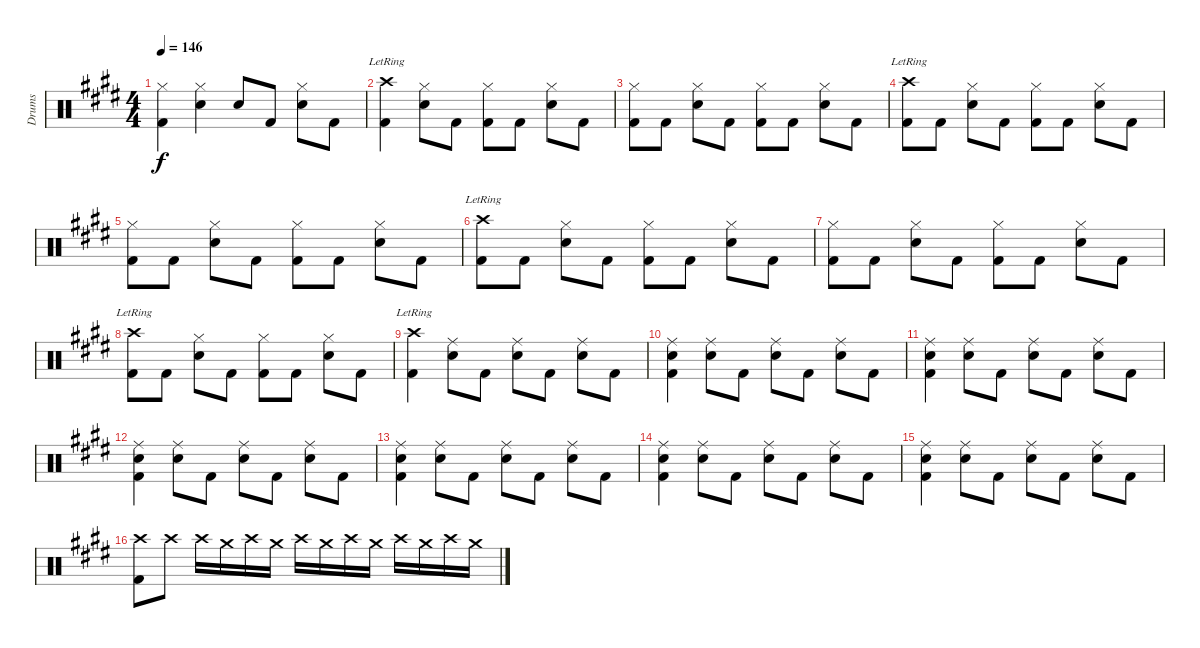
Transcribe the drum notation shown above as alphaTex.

\track ("Drums" "Drums") {instrument percussion}
\staff {score}
\articulation defaults
\ts (4 4)
\tempo 146
\clef neutral
\ks e
("Kick (hit) 2" "Hi-Hat (closed)").4{dy f} ("Snare (hit) 2" "Hi-Hat (closed)").4 "Snare (hit) 2".8 "Kick (hit) 2".8 ("Snare (hit) 2" "Hi-Hat (closed)").8 "Kick (hit) 2".8 |
("Kick (hit) 2" "Crash high (hit)"{lr}).4 ("Snare (hit) 2" "Hi-Hat (closed)").8 "Kick (hit) 2".8 ("Kick (hit) 2" "Hi-Hat (closed)").8 "Kick (hit) 2".8 ("Snare (hit) 2" "Hi-Hat (closed)").8 "Kick (hit) 2".8 |
("Kick (hit) 2" "Hi-Hat (closed)").8 "Kick (hit) 2".8 ("Snare (hit) 2" "Hi-Hat (closed)").8 "Kick (hit) 2".8 ("Kick (hit) 2" "Hi-Hat (closed)").8 "Kick (hit) 2".8 ("Snare (hit) 2" "Hi-Hat (closed)").8 "Kick (hit) 2".8 |
("Kick (hit) 2" "Crash high (hit)"{lr}).8 "Kick (hit) 2".8 ("Snare (hit) 2" "Hi-Hat (closed)").8 "Kick (hit) 2".8 ("Kick (hit) 2" "Hi-Hat (closed)").8 "Kick (hit) 2".8 ("Snare (hit) 2" "Hi-Hat (closed)").8 "Kick (hit) 2".8 |
("Kick (hit) 2" "Hi-Hat (closed)").8 "Kick (hit) 2".8 ("Snare (hit) 2" "Hi-Hat (closed)").8 "Kick (hit) 2".8 ("Kick (hit) 2" "Hi-Hat (closed)").8 "Kick (hit) 2".8 ("Snare (hit) 2" "Hi-Hat (closed)").8 "Kick (hit) 2".8 |
("Kick (hit) 2" "Crash high (hit)"{lr}).8 "Kick (hit) 2".8 ("Snare (hit) 2" "Hi-Hat (closed)").8 "Kick (hit) 2".8 ("Kick (hit) 2" "Hi-Hat (closed)").8 "Kick (hit) 2".8 ("Snare (hit) 2" "Hi-Hat (closed)").8 "Kick (hit) 2".8 |
("Kick (hit) 2" "Hi-Hat (closed)").8 "Kick (hit) 2".8 ("Snare (hit) 2" "Hi-Hat (closed)").8 "Kick (hit) 2".8 ("Kick (hit) 2" "Hi-Hat (closed)").8 "Kick (hit) 2".8 ("Snare (hit) 2" "Hi-Hat (closed)").8 "Kick (hit) 2".8 |
("Kick (hit) 2" "Crash high (hit)"{lr}).8 "Kick (hit) 2".8 ("Snare (hit) 2" "Hi-Hat (closed)").8 "Kick (hit) 2".8 ("Kick (hit) 2" "Hi-Hat (closed)").8 "Kick (hit) 2".8 ("Snare (hit) 2" "Hi-Hat (closed)").8 "Kick (hit) 2".8 |
("Kick (hit) 2" "Crash high (hit)"{lr}).4 ("Snare (hit) 2" "Ride (middle)").8 "Kick (hit) 2".8 ("Snare (hit) 2" "Ride (middle)").8 "Kick (hit) 2".8 ("Snare (hit) 2" "Ride (middle)").8 "Kick (hit) 2".8 |
("Kick (hit) 2" "Snare (hit) 2" "Ride (middle)").4 ("Snare (hit) 2" "Ride (middle)").8 "Kick (hit) 2".8 ("Snare (hit) 2" "Ride (middle)").8 "Kick (hit) 2".8 ("Snare (hit) 2" "Ride (middle)").8 "Kick (hit) 2".8 |
("Kick (hit) 2" "Snare (hit) 2" "Ride (middle)").4 ("Snare (hit) 2" "Ride (middle)").8 "Kick (hit) 2".8 ("Snare (hit) 2" "Ride (middle)").8 "Kick (hit) 2".8 ("Snare (hit) 2" "Ride (middle)").8 "Kick (hit) 2".8 |
("Kick (hit) 2" "Snare (hit) 2" "Ride (middle)").4 ("Snare (hit) 2" "Ride (middle)").8 "Kick (hit) 2".8 ("Snare (hit) 2" "Ride (middle)").8 "Kick (hit) 2".8 ("Snare (hit) 2" "Ride (middle)").8 "Kick (hit) 2".8 |
("Kick (hit) 2" "Snare (hit) 2" "Ride (middle)").4 ("Snare (hit) 2" "Ride (middle)").8 "Kick (hit) 2".8 ("Snare (hit) 2" "Ride (middle)").8 "Kick (hit) 2".8 ("Snare (hit) 2" "Ride (middle)").8 "Kick (hit) 2".8 |
("Kick (hit) 2" "Snare (hit) 2" "Ride (middle)").4 ("Snare (hit) 2" "Ride (middle)").8 "Kick (hit) 2".8 ("Snare (hit) 2" "Ride (middle)").8 "Kick (hit) 2".8 ("Snare (hit) 2" "Ride (middle)").8 "Kick (hit) 2".8 |
("Kick (hit) 2" "Snare (hit) 2" "Ride (middle)").4 ("Snare (hit) 2" "Ride (middle)").8 "Kick (hit) 2".8 ("Snare (hit) 2" "Ride (middle)").8 "Kick (hit) 2".8 ("Snare (hit) 2" "Ride (middle)").8 "Kick (hit) 2".8 |
("Kick (hit) 2" "Crash high (hit)").8 "Crash high (hit)".8 "Crash high (hit)".16 "Crash medium (hit)".16 "Crash high (hit)".16 "Crash medium (hit)".16 "Crash high (hit)".16 "Crash medium (hit)".16 "Crash high (hit)".16 "Crash medium (hit)".16 "Crash high (hit)".16 "Crash medium (hit)".16 "Crash high (hit)".16 "Crash medium (hit)".16
